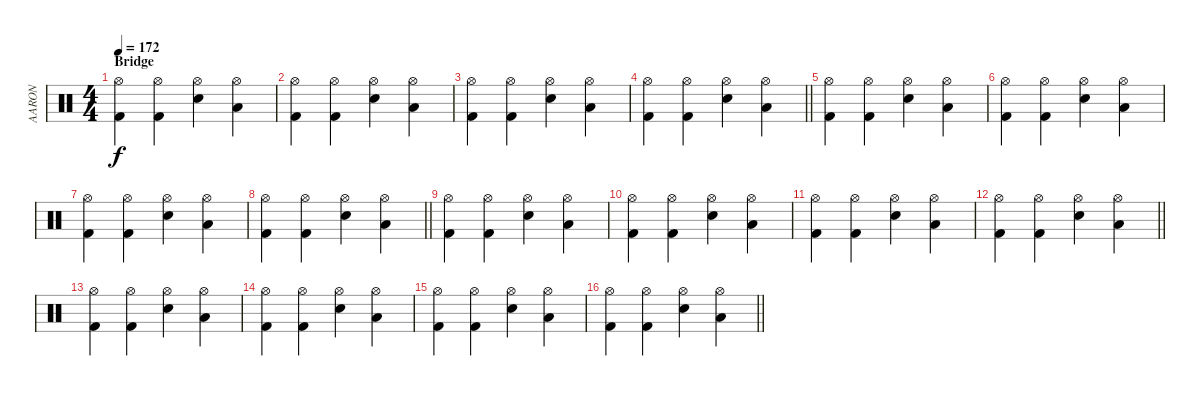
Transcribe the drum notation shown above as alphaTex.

\track ("AARON" "AARON") {instrument percussion}
\staff {score}
\articulation defaults
\ts (4 4)
\section ("" "Bridge")
\tempo 172
\clef neutral
\ks c
("Hi-Hat (open)" "Kick (hit) 2").4{dy f} ("Hi-Hat (open)" "Kick (hit) 2").4 ("Hi-Hat (open)" "Electric Snare (hit)").4 ("Hi-Hat (open)" "Low Tom (hit)").4 |
("Hi-Hat (open)" "Kick (hit) 2").4 ("Hi-Hat (open)" "Kick (hit) 2").4 ("Hi-Hat (open)" "Electric Snare (hit)").4 ("Hi-Hat (open)" "Low Tom (hit)").4 |
("Hi-Hat (open)" "Kick (hit) 2").4 ("Hi-Hat (open)" "Kick (hit) 2").4 ("Hi-Hat (open)" "Electric Snare (hit)").4 ("Hi-Hat (open)" "Low Tom (hit)").4 |
\barLineRight lightlight
("Hi-Hat (open)" "Kick (hit) 2").4 ("Hi-Hat (open)" "Kick (hit) 2").4 ("Hi-Hat (open)" "Electric Snare (hit)").4 ("Hi-Hat (open)" "Low Tom (hit)").4 |
("Hi-Hat (open)" "Kick (hit) 2").4 ("Hi-Hat (open)" "Kick (hit) 2").4 ("Hi-Hat (open)" "Electric Snare (hit)").4 ("Hi-Hat (open)" "Low Tom (hit)").4 |
("Hi-Hat (open)" "Kick (hit) 2").4 ("Hi-Hat (open)" "Kick (hit) 2").4 ("Hi-Hat (open)" "Electric Snare (hit)").4 ("Hi-Hat (open)" "Low Tom (hit)").4 |
("Hi-Hat (open)" "Kick (hit) 2").4 ("Hi-Hat (open)" "Kick (hit) 2").4 ("Hi-Hat (open)" "Electric Snare (hit)").4 ("Hi-Hat (open)" "Low Tom (hit)").4 |
\barLineRight lightlight
("Hi-Hat (open)" "Kick (hit) 2").4 ("Hi-Hat (open)" "Kick (hit) 2").4 ("Hi-Hat (open)" "Electric Snare (hit)").4 ("Hi-Hat (open)" "Low Tom (hit)").4 |
("Hi-Hat (open)" "Kick (hit) 2").4 ("Hi-Hat (open)" "Kick (hit) 2").4 ("Hi-Hat (open)" "Electric Snare (hit)").4 ("Hi-Hat (open)" "Low Tom (hit)").4 |
("Hi-Hat (open)" "Kick (hit) 2").4 ("Hi-Hat (open)" "Kick (hit) 2").4 ("Hi-Hat (open)" "Electric Snare (hit)").4 ("Hi-Hat (open)" "Low Tom (hit)").4 |
("Hi-Hat (open)" "Kick (hit) 2").4 ("Hi-Hat (open)" "Kick (hit) 2").4 ("Hi-Hat (open)" "Electric Snare (hit)").4 ("Hi-Hat (open)" "Low Tom (hit)").4 |
\barLineRight lightlight
("Hi-Hat (open)" "Kick (hit) 2").4 ("Hi-Hat (open)" "Kick (hit) 2").4 ("Hi-Hat (open)" "Electric Snare (hit)").4 ("Hi-Hat (open)" "Low Tom (hit)").4 |
("Hi-Hat (open)" "Kick (hit) 2").4 ("Hi-Hat (open)" "Kick (hit) 2").4 ("Hi-Hat (open)" "Electric Snare (hit)").4 ("Hi-Hat (open)" "Low Tom (hit)").4 |
("Hi-Hat (open)" "Kick (hit) 2").4 ("Hi-Hat (open)" "Kick (hit) 2").4 ("Hi-Hat (open)" "Electric Snare (hit)").4 ("Hi-Hat (open)" "Low Tom (hit)").4 |
("Hi-Hat (open)" "Kick (hit) 2").4 ("Hi-Hat (open)" "Kick (hit) 2").4 ("Hi-Hat (open)" "Electric Snare (hit)").4 ("Hi-Hat (open)" "Low Tom (hit)").4 |
\barLineRight lightlight
("Hi-Hat (open)" "Kick (hit) 2").4 ("Hi-Hat (open)" "Kick (hit) 2").4 ("Hi-Hat (open)" "Electric Snare (hit)").4 ("Hi-Hat (open)" "Low Tom (hit)").4
